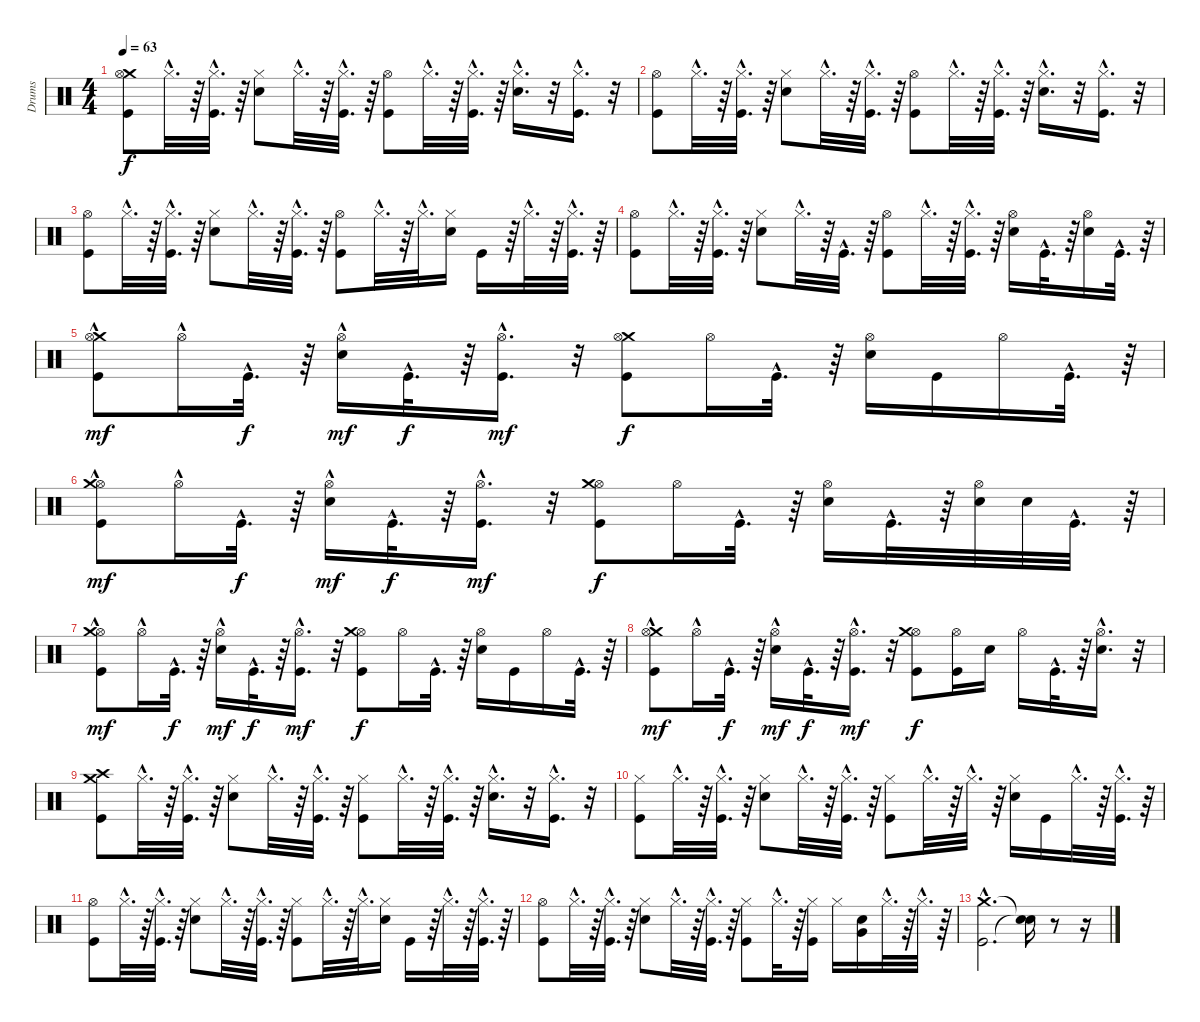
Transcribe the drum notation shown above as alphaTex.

\track ("Drums" "Drums") {instrument percussion}
\staff {score}
\articulation defaults
\ts (4 4)
\tempo 63
\clef neutral
\ks c
("Crash medium (hit)" "Hi-Hat (open)" "Kick (hit)").8{dy f} "Hi-Hat (closed)"{hac}.32{d} r.64 ("Hi-Hat (closed)"{hac} "Kick (hit)"{hac}).32{d} r.64 ("Hi-Hat (closed)" "Electric Snare (hit)").8 "Hi-Hat (closed)"{hac}.32{d} r.64 ("Hi-Hat (closed)"{hac} "Kick (hit)"{hac}).32{d} r.64 ("Hi-Hat (open)" "Kick (hit)").8 "Hi-Hat (closed)"{hac}.32{d} r.64 ("Hi-Hat (closed)"{hac} "Kick (hit)"{hac}).32{d} r.64 ("Hi-Hat (closed)"{hac} "Electric Snare (hit)"{hac}).16{d} r.32 ("Hi-Hat (closed)"{hac} "Kick (hit)"{hac}).16{d} r.32 |
("Kick (hit)" "Hi-Hat (open)").8 "Hi-Hat (closed)"{hac}.32{d} r.64 ("Kick (hit)"{hac} "Hi-Hat (closed)"{hac}).32{d} r.64 ("Electric Snare (hit)" "Hi-Hat (closed)").8 "Hi-Hat (closed)"{hac}.32{d} r.64 ("Kick (hit)"{hac} "Hi-Hat (closed)"{hac}).32{d} r.64 ("Kick (hit)" "Hi-Hat (open)").8 "Hi-Hat (closed)"{hac}.32{d} r.64 ("Kick (hit)"{hac} "Hi-Hat (closed)"{hac}).32{d} r.64 ("Electric Snare (hit)"{hac} "Hi-Hat (closed)"{hac}).16{d} r.32 ("Kick (hit)"{hac} "Hi-Hat (closed)"{hac}).16{d} r.32 |
("Kick (hit)" "Hi-Hat (open)").8 "Hi-Hat (closed)"{hac}.32{d} r.64 ("Kick (hit)"{hac} "Hi-Hat (closed)"{hac}).32{d} r.64 ("Electric Snare (hit)" "Hi-Hat (closed)").8 "Hi-Hat (closed)"{hac}.32{d} r.64 ("Kick (hit)"{hac} "Hi-Hat (closed)"{hac}).32{d} r.64 ("Kick (hit)" "Hi-Hat (open)").8 "Hi-Hat (closed)"{hac}.32{d} r.64 "Hi-Hat (closed)"{hac}.32{d} ("Electric Snare (hit)" "Hi-Hat (closed)").16 "Kick (hit)".16 r.64 "Hi-Hat (closed)"{hac}.32{d} r.64 ("Kick (hit)"{hac} "Hi-Hat (closed)"{hac}).32{d} r.64 |
("Kick (hit)" "Hi-Hat (open)").8 "Hi-Hat (closed)"{hac}.32{d} r.64 ("Kick (hit)"{hac} "Hi-Hat (closed)"{hac}).32{d} r.64 ("Electric Snare (hit)" "Hi-Hat (closed)").8 "Hi-Hat (closed)"{hac}.32{d} r.64 "Kick (hit)"{hac}.32{d} r.64 ("Hi-Hat (open)" "Kick (hit)").8 "Hi-Hat (closed)"{hac}.32{d} r.64 ("Hi-Hat (closed)"{hac} "Kick (hit)"{hac}).32{d} r.64 ("Hi-Hat (open)" "Electric Snare (hit)").16 "Kick (hit)"{hac}.32{d} r.64 ("Hi-Hat (open)" "Electric Snare (hit)").16 "Kick (hit)"{hac}.32{d} r.64 |
("Crash medium (hit)"{hac} "Hi-Hat (open)"{hac} "Kick (hit)").8{dy mf} "Hi-Hat (open)"{hac}.16 "Kick (hit)"{hac}.32{d dy f} r.64 ("Hi-Hat (open)"{hac} "Electric Snare (hit)"{hac}).16{dy mf} "Kick (hit)"{hac}.32{d dy f} r.64 ("Hi-Hat (open)"{hac} "Kick (hit)"{hac}).16{d dy mf} r.32 ("Crash medium (hit)" "Hi-Hat (open)" "Kick (hit)").8{dy f} "Hi-Hat (open)".16 "Kick (hit)"{hac}.32{d} r.64 ("Hi-Hat (open)" "Electric Snare (hit)").16 "Kick (hit)".16 "Hi-Hat (open)".16 "Kick (hit)"{hac}.32{d} r.64 |
("Kick (hit)"{hac} "Hi-Hat (open)"{hac} "Crash medium (hit)").8{dy mf} "Hi-Hat (open)"{hac}.16 "Kick (hit)"{hac}.32{d dy f} r.64 ("Electric Snare (hit)"{hac} "Hi-Hat (open)"{hac}).16{dy mf} "Kick (hit)"{hac}.32{d dy f} r.64 ("Kick (hit)"{hac} "Hi-Hat (open)"{hac}).16{d dy mf} r.32 ("Kick (hit)" "Hi-Hat (open)" "Crash medium (hit)").8{dy f} "Hi-Hat (open)".16 "Kick (hit)"{hac}.32{d} r.64 ("Electric Snare (hit)" "Hi-Hat (open)").16 "Kick (hit)"{hac}.32{d} r.64 ("Electric Snare (hit)" "Hi-Hat (open)").32 "Electric Snare (hit)".32 "Kick (hit)"{hac}.32{d} r.64 |
("Kick (hit)"{hac} "Hi-Hat (open)"{hac} "Crash medium (hit)").8{dy mf} "Hi-Hat (open)"{hac}.16 "Kick (hit)"{hac}.32{d dy f} r.64 ("Electric Snare (hit)"{hac} "Hi-Hat (open)"{hac}).16{dy mf} "Kick (hit)"{hac}.32{d dy f} r.64 ("Kick (hit)"{hac} "Hi-Hat (open)"{hac}).16{d dy mf} r.32 ("Kick (hit)" "Hi-Hat (open)" "Crash medium (hit)").8{dy f} "Hi-Hat (open)".16 "Kick (hit)"{hac}.32{d} r.64 ("Electric Snare (hit)" "Hi-Hat (open)").16 "Kick (hit)".16 "Hi-Hat (open)".16 "Kick (hit)"{hac}.32{d} r.64 |
("Crash medium (hit)"{hac} "Hi-Hat (open)"{hac} "Kick (hit)").8{dy mf} "Hi-Hat (open)"{hac}.16 "Kick (hit)"{hac}.32{d dy f} r.64 ("Electric Snare (hit)"{hac} "Hi-Hat (open)"{hac}).16{dy mf} "Kick (hit)"{hac}.32{d dy f} r.64 ("Kick (hit)"{hac} "Hi-Hat (open)"{hac}).16{d dy mf} r.32 ("Kick (hit)" "Hi-Hat (open)" "Crash medium (hit)").8{dy f} ("Kick (hit)" "Hi-Hat (open)").16 "Electric Snare (hit)".16 "Hi-Hat (open)".16 "Kick (hit)"{hac}.32{d} r.64 ("Electric Snare (hit)"{hac} "Hi-Hat (open)"{hac}).16{d} r.32 |
("Kick (hit)" "Crash medium (hit)" "Crash high (hit)").8 "Hi-Hat (closed)"{hac}.32{d} r.64 ("Kick (hit)"{hac} "Hi-Hat (closed)"{hac}).32{d} r.64 ("Electric Snare (hit)" "Hi-Hat (closed)").8 "Hi-Hat (closed)"{hac}.32{d} r.64 ("Kick (hit)"{hac} "Hi-Hat (closed)"{hac}).32{d} r.64 ("Kick (hit)" "Hi-Hat (closed)").8 "Hi-Hat (closed)"{hac}.32{d} r.64 ("Kick (hit)"{hac} "Hi-Hat (closed)"{hac}).32{d} r.64 ("Electric Snare (hit)"{hac} "Hi-Hat (closed)"{hac}).16{d} r.32 ("Kick (hit)"{hac} "Hi-Hat (closed)"{hac}).16{d} r.32 |
("Hi-Hat (closed)" "Kick (hit)").8 "Hi-Hat (closed)"{hac}.32{d} r.64 ("Hi-Hat (closed)"{hac} "Kick (hit)"{hac}).32{d} r.64 ("Hi-Hat (closed)" "Electric Snare (hit)").8 "Hi-Hat (closed)"{hac}.32{d} r.64 ("Hi-Hat (closed)"{hac} "Kick (hit)"{hac}).32{d} r.64 ("Hi-Hat (closed)" "Kick (hit)").8 "Hi-Hat (closed)"{hac}.32{d} r.64 "Hi-Hat (closed)"{hac}.32{d} r.64 ("Hi-Hat (closed)" "Electric Snare (hit)").16 "Kick (hit)".16 "Hi-Hat (closed)"{hac}.32{d} r.64 ("Hi-Hat (closed)"{hac} "Kick (hit)"{hac}).32{d} r.64 |
("Kick (hit)" "Hi-Hat (open)").8 "Hi-Hat (closed)"{hac}.32{d} r.64 ("Kick (hit)"{hac} "Hi-Hat (closed)"{hac}).32{d} r.64 ("Electric Snare (hit)" "Hi-Hat (closed)").8 "Hi-Hat (closed)"{hac}.32{d} r.64 ("Kick (hit)"{hac} "Hi-Hat (closed)"{hac}).32{d} r.64 ("Kick (hit)" "Hi-Hat (closed)").8 "Hi-Hat (closed)"{hac}.32{d} r.64 "Hi-Hat (closed)"{hac}.32{d} ("Electric Snare (hit)" "Hi-Hat (closed)").16 "Kick (hit)".16 r.64 "Hi-Hat (closed)"{hac}.32{d} r.64 ("Kick (hit)"{hac} "Hi-Hat (closed)"{hac}).32{d} r.64 |
("Kick (hit)" "Hi-Hat (open)").8 "Hi-Hat (closed)"{hac}.32{d} r.64 ("Kick (hit)"{hac} "Hi-Hat (closed)"{hac}).32{d} r.64 ("Electric Snare (hit)" "Hi-Hat (closed)").8 "Hi-Hat (closed)"{hac}.32{d} r.64 ("Kick (hit)"{hac} "Hi-Hat (closed)"{hac}).32{d} r.64 ("Kick (hit)" "Hi-Hat (closed)").8 "Hi-Hat (closed)"{hac}.32{d} r.64 ("Kick (hit)" "Hi-Hat (closed)").16 "Hi-Hat (closed)".16 ("Electric Snare (hit)" "Very Low Tom (hit)").16 "Hi-Hat (closed)"{hac}.32{d} r.64 "Hi-Hat (closed)"{hac}.32{d} r.64 |
("Crash medium (hit)"{hac} "Kick (hit)"{hac}).2{d} ("Snare (hit)"{t} "Snare (hit)"{t}).16 r.8 r.16
